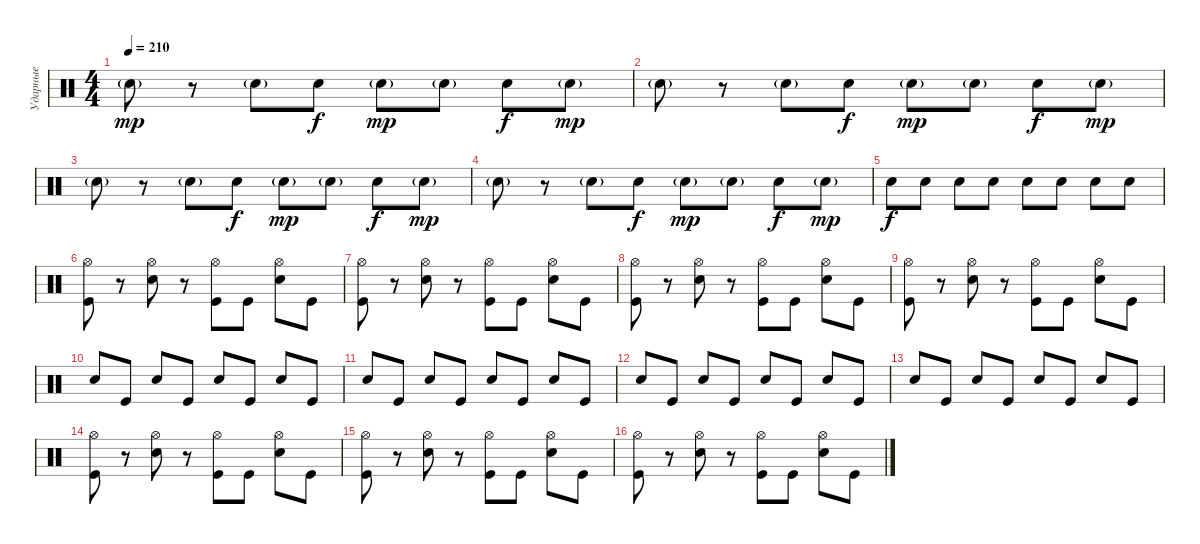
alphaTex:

\track ("Ударные" "Ударные") {instrument percussion}
\staff {score}
\articulation defaults
\ts (4 4)
\tempo 210
\clef neutral
\ks c "Electric Snare (hit)"{g}.8{dy mp}
r.8 "Electric Snare (hit)"{g}.8 "Electric Snare (hit)".8{dy f} "Electric Snare (hit)"{g}.8{dy mp} "Electric Snare (hit)"{g}.8 "Electric Snare (hit)".8{dy f} "Electric Snare (hit)"{g}.8{dy mp} |
"Electric Snare (hit)"{g}.8 r.8 "Electric Snare (hit)"{g}.8 "Electric Snare (hit)".8{dy f} "Electric Snare (hit)"{g}.8{dy mp} "Electric Snare (hit)"{g}.8 "Electric Snare (hit)".8{dy f} "Electric Snare (hit)"{g}.8{dy mp} |
"Electric Snare (hit)"{g}.8 r.8 "Electric Snare (hit)"{g}.8 "Electric Snare (hit)".8{dy f} "Electric Snare (hit)"{g}.8{dy mp} "Electric Snare (hit)"{g}.8 "Electric Snare (hit)".8{dy f} "Electric Snare (hit)"{g}.8{dy mp} |
"Electric Snare (hit)"{g}.8 r.8 "Electric Snare (hit)"{g}.8 "Electric Snare (hit)".8{dy f} "Electric Snare (hit)"{g}.8{dy mp} "Electric Snare (hit)"{g}.8 "Electric Snare (hit)".8{dy f} "Electric Snare (hit)"{g}.8{dy mp} |
"Electric Snare (hit)".8{dy f} "Electric Snare (hit)".8 "Electric Snare (hit)".8 "Electric Snare (hit)".8 "Electric Snare (hit)".8 "Electric Snare (hit)".8 "Electric Snare (hit)".8 "Electric Snare (hit)".8 |
("Hi-Hat (open)" "Kick (hit)").8 r.8 ("Hi-Hat (open)" "Electric Snare (hit)").8 r.8 ("Hi-Hat (open)" "Kick (hit)").8 "Kick (hit)".8 ("Hi-Hat (open)" "Electric Snare (hit)").8 "Kick (hit)".8 |
("Hi-Hat (open)" "Kick (hit)").8 r.8 ("Hi-Hat (open)" "Electric Snare (hit)").8 r.8 ("Hi-Hat (open)" "Kick (hit)").8 "Kick (hit)".8 ("Hi-Hat (open)" "Electric Snare (hit)").8 "Kick (hit)".8 |
("Hi-Hat (open)" "Kick (hit)").8 r.8 ("Hi-Hat (open)" "Electric Snare (hit)").8 r.8 ("Hi-Hat (open)" "Kick (hit)").8 "Kick (hit)".8 ("Hi-Hat (open)" "Electric Snare (hit)").8 "Kick (hit)".8 |
("Hi-Hat (open)" "Kick (hit)").8 r.8 ("Hi-Hat (open)" "Electric Snare (hit)").8 r.8 ("Hi-Hat (open)" "Kick (hit)").8 "Kick (hit)".8 ("Hi-Hat (open)" "Electric Snare (hit)").8 "Kick (hit)".8 |
"Electric Snare (hit)".8 "Kick (hit)".8 "Electric Snare (hit)".8 "Kick (hit)".8 "Electric Snare (hit)".8 "Kick (hit)".8 "Electric Snare (hit)".8 "Kick (hit)".8 |
"Electric Snare (hit)".8 "Kick (hit)".8 "Electric Snare (hit)".8 "Kick (hit)".8 "Electric Snare (hit)".8 "Kick (hit)".8 "Electric Snare (hit)".8 "Kick (hit)".8 |
"Electric Snare (hit)".8 "Kick (hit)".8 "Electric Snare (hit)".8 "Kick (hit)".8 "Electric Snare (hit)".8 "Kick (hit)".8 "Electric Snare (hit)".8 "Kick (hit)".8 |
"Electric Snare (hit)".8 "Kick (hit)".8 "Electric Snare (hit)".8 "Kick (hit)".8 "Electric Snare (hit)".8 "Kick (hit)".8 "Electric Snare (hit)".8 "Kick (hit)".8 |
("Hi-Hat (open)" "Kick (hit)").8 r.8 ("Hi-Hat (open)" "Electric Snare (hit)").8 r.8 ("Hi-Hat (open)" "Kick (hit)").8 "Kick (hit)".8 ("Hi-Hat (open)" "Electric Snare (hit)").8 "Kick (hit)".8 |
("Hi-Hat (open)" "Kick (hit)").8 r.8 ("Hi-Hat (open)" "Electric Snare (hit)").8 r.8 ("Hi-Hat (open)" "Kick (hit)").8 "Kick (hit)".8 ("Hi-Hat (open)" "Electric Snare (hit)").8 "Kick (hit)".8 |
("Hi-Hat (open)" "Kick (hit)").8 r.8 ("Hi-Hat (open)" "Electric Snare (hit)").8 r.8 ("Hi-Hat (open)" "Kick (hit)").8 "Kick (hit)".8 ("Hi-Hat (open)" "Electric Snare (hit)").8 "Kick (hit)".8
